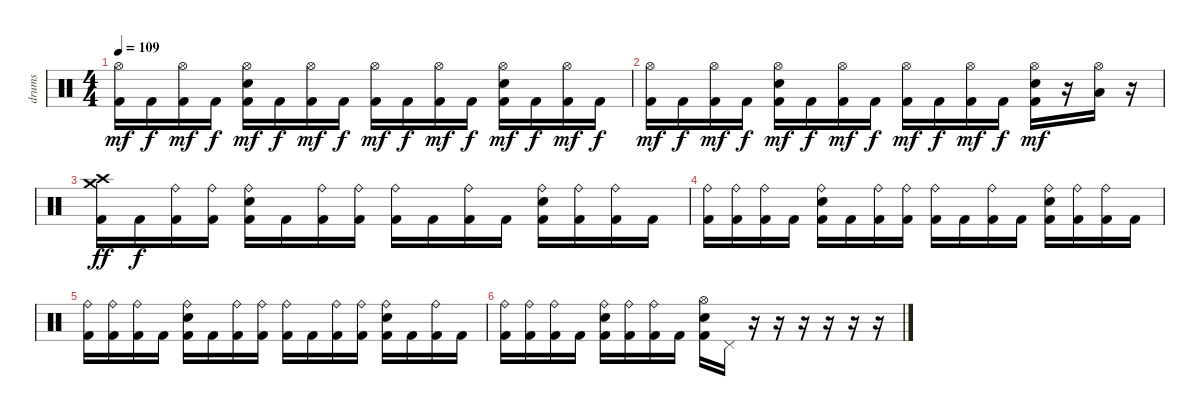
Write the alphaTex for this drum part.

\track ("drums" "drums") {instrument percussion}
\staff {score}
\articulation defaults
\ts (4 4)
\tempo 109
\clef neutral
\ks c
("Hi-Hat (open)" "Kick (hit) 2").16{dy mf} "Kick (hit) 2".16{dy f} ("Hi-Hat (open)" "Kick (hit) 2").16{dy mf} "Kick (hit) 2".16{dy f} ("Hi-Hat (open)" "Electric Snare (hit)" "Kick (hit) 2").16{dy mf} "Kick (hit) 2".16{dy f} ("Hi-Hat (open)" "Kick (hit) 2").16{dy mf} "Kick (hit) 2".16{dy f} ("Hi-Hat (open)" "Kick (hit) 2").16{dy mf} "Kick (hit) 2".16{dy f} ("Hi-Hat (open)" "Kick (hit) 2").16{dy mf} "Kick (hit) 2".16{dy f} ("Hi-Hat (open)" "Electric Snare (hit)" "Kick (hit) 2").16{dy mf} "Kick (hit) 2".16{dy f} ("Hi-Hat (open)" "Kick (hit) 2").16{dy mf} "Kick (hit) 2".16{dy f} |
("Hi-Hat (open)" "Kick (hit) 2").16{dy mf} "Kick (hit) 2".16{dy f} ("Hi-Hat (open)" "Kick (hit) 2").16{dy mf} "Kick (hit) 2".16{dy f} ("Hi-Hat (open)" "Electric Snare (hit)" "Kick (hit) 2").16{dy mf} "Kick (hit) 2".16{dy f} ("Hi-Hat (open)" "Kick (hit) 2").16{dy mf} "Kick (hit) 2".16{dy f} ("Hi-Hat (open)" "Kick (hit) 2").16{dy mf} "Kick (hit) 2".16{dy f} ("Hi-Hat (open)" "Kick (hit) 2").16{dy mf} "Kick (hit) 2".16{dy f} ("Hi-Hat (open)" "Electric Snare (hit)" "Kick (hit) 2").16{dy mf} r.16 ("Hi-Hat (open)" "Low Tom (hit)").16 r.16 |
("Crash medium (hit)" "Crash high (hit)" "Kick (hit) 2").16{dy ff} "Kick (hit) 2".16{dy f} ("Ride (bell)" "Kick (hit) 2").16 ("Ride (bell)" "Kick (hit) 2").16 ("Ride (bell)" "Electric Snare (hit)" "Kick (hit) 2").16 "Kick (hit) 2".16 ("Ride (bell)" "Kick (hit) 2").16 ("Ride (bell)" "Kick (hit) 2").16 ("Ride (bell)" "Kick (hit) 2").16 "Kick (hit) 2".16 ("Ride (bell)" "Kick (hit) 2").16 "Kick (hit) 2".16 ("Ride (bell)" "Electric Snare (hit)" "Kick (hit) 2").16 ("Ride (bell)" "Kick (hit) 2").16 ("Ride (bell)" "Kick (hit) 2").16 "Kick (hit) 2".16 |
("Ride (bell)" "Kick (hit) 2").16 ("Ride (bell)" "Kick (hit) 2").16 ("Ride (bell)" "Kick (hit) 2").16 "Kick (hit) 2".16 ("Ride (bell)" "Electric Snare (hit)" "Kick (hit) 2").16 "Kick (hit) 2".16 ("Ride (bell)" "Kick (hit) 2").16 ("Ride (bell)" "Kick (hit) 2").16 ("Ride (bell)" "Kick (hit) 2").16 "Kick (hit) 2".16 ("Ride (bell)" "Kick (hit) 2").16 "Kick (hit) 2".16 ("Ride (bell)" "Electric Snare (hit)" "Kick (hit) 2").16 ("Ride (bell)" "Kick (hit) 2").16 ("Ride (bell)" "Kick (hit) 2").16 "Kick (hit) 2".16 |
("Ride (bell)" "Kick (hit) 2").16 ("Ride (bell)" "Kick (hit) 2").16 ("Ride (bell)" "Kick (hit) 2").16 "Kick (hit) 2".16 ("Ride (bell)" "Electric Snare (hit)" "Kick (hit) 2").16 "Kick (hit) 2".16 ("Ride (bell)" "Kick (hit) 2").16 ("Ride (bell)" "Kick (hit) 2").16 ("Ride (bell)" "Kick (hit) 2").16 "Kick (hit) 2".16 ("Ride (bell)" "Kick (hit) 2").16 ("Ride (bell)" "Kick (hit) 2").16 ("Ride (bell)" "Electric Snare (hit)" "Kick (hit) 2").16 "Kick (hit) 2".16 ("Ride (bell)" "Kick (hit) 2").16 "Kick (hit) 2".16 |
("Ride (bell)" "Kick (hit) 2").16 ("Ride (bell)" "Kick (hit) 2").16 ("Ride (bell)" "Kick (hit) 2").16 "Kick (hit) 2".16 ("Ride (bell)" "Electric Snare (hit)" "Kick (hit) 2").16 ("Ride (bell)" "Kick (hit) 2").16 ("Ride (bell)" "Kick (hit) 2").16 "Kick (hit) 2".16 ("Hi-Hat (open)" "Electric Snare (hit)" "Kick (hit) 2").16 "Pedal Hi-Hat (hit)".16 r.16 r.16 r.16 r.16 r.16 r.16
